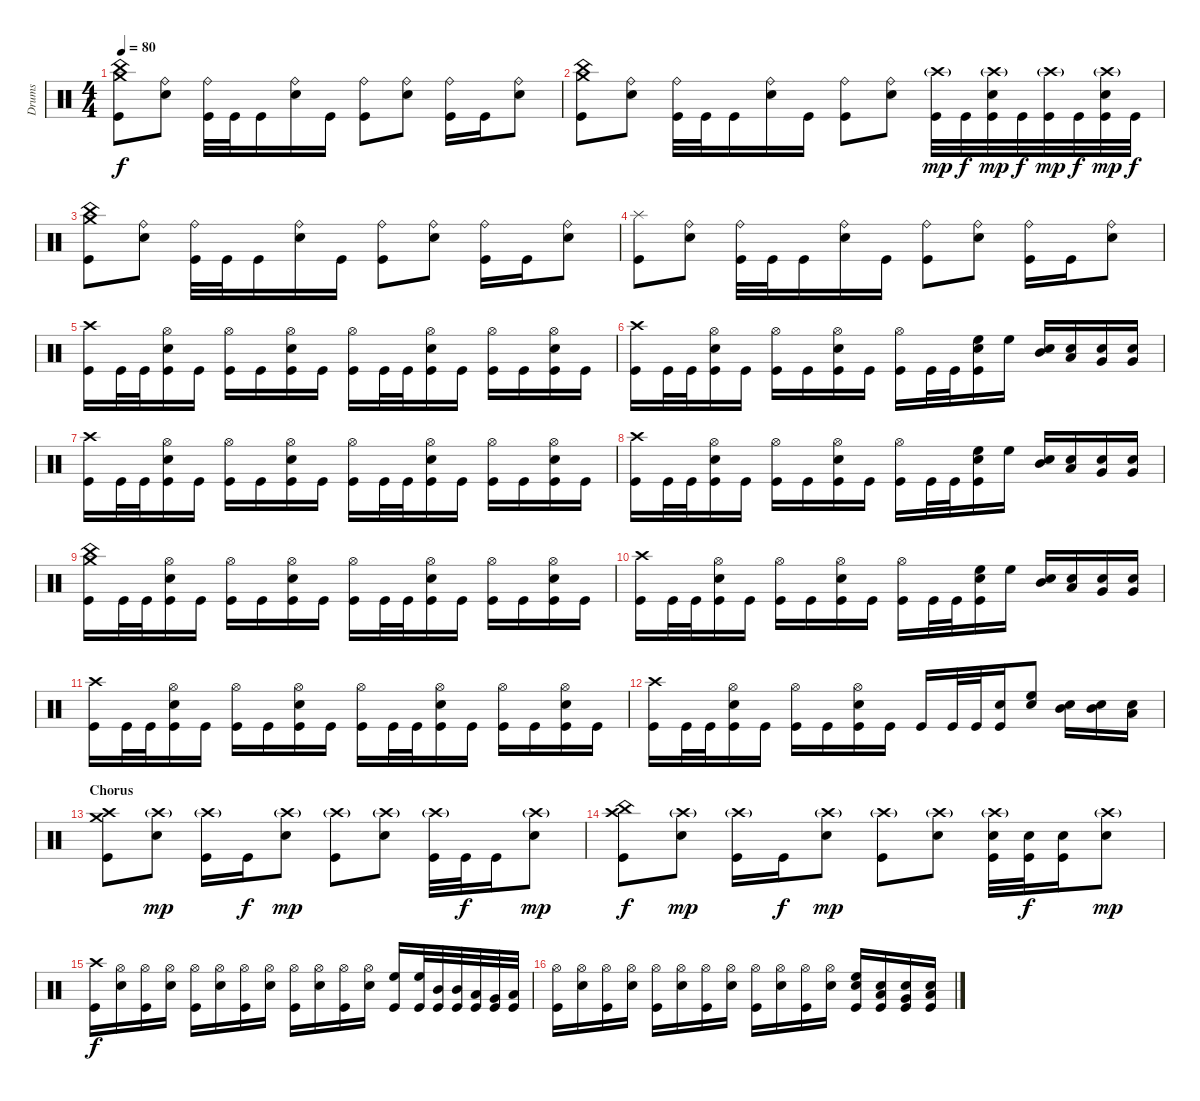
\track ("Drums" "Drums") {instrument percussion}
\staff {score}
\articulation defaults
\ts (4 4)
\tempo 80
\clef neutral
\ks c
("China (hit)" "Crash medium (hit)" "Kick (hit)").8{dy f} ("Ride (bell)" "Electric Snare (hit)").8 ("Ride (bell)" "Kick (hit)").32 "Kick (hit)".32 "Kick (hit)".16 ("Ride (bell)" "Electric Snare (hit)").16 "Kick (hit)".16 ("Ride (bell)" "Kick (hit)").8 ("Ride (bell)" "Electric Snare (hit)").8 ("Ride (bell)" "Kick (hit)").16 "Kick (hit)".16 ("Ride (bell)" "Electric Snare (hit)").8 |
("China (hit)" "Crash medium (hit)" "Kick (hit)").8 ("Ride (bell)" "Electric Snare (hit)").8 ("Ride (bell)" "Kick (hit)").32 "Kick (hit)".32 "Kick (hit)".16 ("Ride (bell)" "Electric Snare (hit)").16 "Kick (hit)".16 ("Ride (bell)" "Kick (hit)").8 ("Ride (bell)" "Electric Snare (hit)").8 ("Crash high (hit)"{g} "Kick (hit)").32{dy mp} "Kick (hit)".32{dy f} ("Crash high (hit)"{g} "Electric Snare (hit)" "Kick (hit)").32{dy mp} "Kick (hit)".32{dy f} ("Crash high (hit)"{g} "Kick (hit)").32{dy mp} "Kick (hit)".32{dy f} ("Crash high (hit)"{g} "Electric Snare (hit)" "Kick (hit)").32{dy mp} "Kick (hit)".32{dy f} |
("China (hit)" "Crash medium (hit)" "Kick (hit)").8 ("Ride (bell)" "Electric Snare (hit)").8 ("Ride (bell)" "Kick (hit)").32 "Kick (hit)".32 "Kick (hit)".16 ("Ride (bell)" "Electric Snare (hit)").16 "Kick (hit)".16 ("Ride (bell)" "Kick (hit)").8 ("Ride (bell)" "Electric Snare (hit)").8 ("Ride (bell)" "Kick (hit)").16 "Kick (hit)".16 ("Ride (bell)" "Electric Snare (hit)").8 |
("Splash (hit)" "Kick (hit)").8 ("Ride (bell)" "Electric Snare (hit)").8 ("Ride (bell)" "Kick (hit)").32 "Kick (hit)".32 "Kick (hit)".16 ("Ride (bell)" "Electric Snare (hit)").16 "Kick (hit)".16 ("Ride (bell)" "Kick (hit)").8 ("Ride (bell)" "Electric Snare (hit)").8 ("Ride (bell)" "Kick (hit)").16 "Kick (hit)".16 ("Ride (bell)" "Electric Snare (hit)").8 |
("Crash high (hit)" "Kick (hit)").16 "Kick (hit)".32 "Kick (hit)".32 ("Hi-Hat (open)" "Electric Snare (hit)" "Kick (hit)").16 "Kick (hit)".16 ("Hi-Hat (open)" "Kick (hit)").16 "Kick (hit)".16 ("Hi-Hat (open)" "Electric Snare (hit)" "Kick (hit)").16 "Kick (hit)".16 ("Hi-Hat (open)" "Kick (hit)").16 "Kick (hit)".32 "Kick (hit)".32 ("Hi-Hat (open)" "Electric Snare (hit)" "Kick (hit)").16 "Kick (hit)".16 ("Hi-Hat (open)" "Kick (hit)").16 "Kick (hit)".16 ("Hi-Hat (open)" "Electric Snare (hit)" "Kick (hit)").16 "Kick (hit)".16 |
("Crash high (hit)" "Kick (hit)").16 "Kick (hit)".32 "Kick (hit)".32 ("Hi-Hat (open)" "Electric Snare (hit)" "Kick (hit)").16 "Kick (hit)".16 ("Hi-Hat (open)" "Kick (hit)").16 "Kick (hit)".16 ("Hi-Hat (open)" "Electric Snare (hit)" "Kick (hit)").16 "Kick (hit)".16 ("Hi-Hat (open)" "Kick (hit)").16 "Kick (hit)".32 "Kick (hit)".32 ("High Floor Tom (hit)" "Electric Snare (hit)" "Kick (hit)").16 "High Floor Tom (hit)".16 ("Mid Tom (hit)" "Electric Snare (hit)").16 ("Low Tom (hit)" "Electric Snare (hit)").16 ("Very Low Tom (hit)" "Electric Snare (hit)").16 ("Very Low Tom (hit)" "Electric Snare (hit)").16 |
("Crash high (hit)" "Kick (hit)").16 "Kick (hit)".32 "Kick (hit)".32 ("Hi-Hat (open)" "Electric Snare (hit)" "Kick (hit)").16 "Kick (hit)".16 ("Hi-Hat (open)" "Kick (hit)").16 "Kick (hit)".16 ("Hi-Hat (open)" "Electric Snare (hit)" "Kick (hit)").16 "Kick (hit)".16 ("Hi-Hat (open)" "Kick (hit)").16 "Kick (hit)".32 "Kick (hit)".32 ("Hi-Hat (open)" "Electric Snare (hit)" "Kick (hit)").16 "Kick (hit)".16 ("Hi-Hat (open)" "Kick (hit)").16 "Kick (hit)".16 ("Hi-Hat (open)" "Electric Snare (hit)" "Kick (hit)").16 "Kick (hit)".16 |
("Crash high (hit)" "Kick (hit)").16 "Kick (hit)".32 "Kick (hit)".32 ("Hi-Hat (open)" "Electric Snare (hit)" "Kick (hit)").16 "Kick (hit)".16 ("Hi-Hat (open)" "Kick (hit)").16 "Kick (hit)".16 ("Hi-Hat (open)" "Electric Snare (hit)" "Kick (hit)").16 "Kick (hit)".16 ("Hi-Hat (open)" "Kick (hit)").16 "Kick (hit)".32 "Kick (hit)".32 ("High Floor Tom (hit)" "Electric Snare (hit)" "Kick (hit)").16 "High Floor Tom (hit)".16 ("Mid Tom (hit)" "Electric Snare (hit)").16 ("Low Tom (hit)" "Electric Snare (hit)").16 ("Very Low Tom (hit)" "Electric Snare (hit)").16 ("Very Low Tom (hit)" "Electric Snare (hit)").16 |
("Crash medium (hit)" "China (hit)" "Kick (hit)").16 "Kick (hit)".32 "Kick (hit)".32 ("Hi-Hat (open)" "Electric Snare (hit)" "Kick (hit)").16 "Kick (hit)".16 ("Hi-Hat (open)" "Kick (hit)").16 "Kick (hit)".16 ("Hi-Hat (open)" "Electric Snare (hit)" "Kick (hit)").16 "Kick (hit)".16 ("Hi-Hat (open)" "Kick (hit)").16 "Kick (hit)".32 "Kick (hit)".32 ("Hi-Hat (open)" "Electric Snare (hit)" "Kick (hit)").16 "Kick (hit)".16 ("Hi-Hat (open)" "Kick (hit)").16 "Kick (hit)".16 ("Hi-Hat (open)" "Electric Snare (hit)" "Kick (hit)").16 "Kick (hit)".16 |
("Crash high (hit)" "Kick (hit)").16 "Kick (hit)".32 "Kick (hit)".32 ("Hi-Hat (open)" "Electric Snare (hit)" "Kick (hit)").16 "Kick (hit)".16 ("Hi-Hat (open)" "Kick (hit)").16 "Kick (hit)".16 ("Hi-Hat (open)" "Electric Snare (hit)" "Kick (hit)").16 "Kick (hit)".16 ("Hi-Hat (open)" "Kick (hit)").16 "Kick (hit)".32 "Kick (hit)".32 ("High Floor Tom (hit)" "Electric Snare (hit)" "Kick (hit)").16 "High Floor Tom (hit)".16 ("Mid Tom (hit)" "Electric Snare (hit)").16 ("Low Tom (hit)" "Electric Snare (hit)").16 ("Very Low Tom (hit)" "Electric Snare (hit)").16 ("Very Low Tom (hit)" "Electric Snare (hit)").16 |
("Crash high (hit)" "Kick (hit)").16 "Kick (hit)".32 "Kick (hit)".32 ("Hi-Hat (open)" "Electric Snare (hit)" "Kick (hit)").16 "Kick (hit)".16 ("Hi-Hat (open)" "Kick (hit)").16 "Kick (hit)".16 ("Hi-Hat (open)" "Electric Snare (hit)" "Kick (hit)").16 "Kick (hit)".16 ("Hi-Hat (open)" "Kick (hit)").16 "Kick (hit)".32 "Kick (hit)".32 ("Hi-Hat (open)" "Electric Snare (hit)" "Kick (hit)").16 "Kick (hit)".16 ("Hi-Hat (open)" "Kick (hit)").16 "Kick (hit)".16 ("Hi-Hat (open)" "Electric Snare (hit)" "Kick (hit)").16 "Kick (hit)".16 |
("Crash high (hit)" "Kick (hit)").16 "Kick (hit)".32 "Kick (hit)".32 ("Hi-Hat (open)" "Electric Snare (hit)" "Kick (hit)").16 "Kick (hit)".16 ("Hi-Hat (open)" "Kick (hit)").16 "Kick (hit)".16 ("Hi-Hat (open)" "Electric Snare (hit)" "Kick (hit)").16 "Kick (hit)".16 "Kick (hit)".16 "Kick (hit)".32 "Kick (hit)".32 ("Electric Snare (hit)" "Kick (hit)").16 ("High Floor Tom (hit)" "Electric Snare (hit)").8 ("Mid Tom (hit)" "Electric Snare (hit)").16 ("Mid Tom (hit)" "Electric Snare (hit)").16 ("Low Tom (hit)" "Electric Snare (hit)").16 |
\section ("" "Chorus")
("Crash high (hit)" "Crash medium (hit)" "Kick (hit)").8 ("Crash high (hit)"{g} "Electric Snare (hit)").8{dy mp} ("Crash high (hit)"{g} "Kick (hit)").16 "Kick (hit)".16{dy f} ("Crash high (hit)"{g} "Electric Snare (hit)").8{dy mp} ("Crash high (hit)"{g} "Kick (hit)").8 ("Crash high (hit)"{g} "Electric Snare (hit)").8 ("Crash high (hit)"{g} "Kick (hit)").32 "Kick (hit)".32{dy f} "Kick (hit)".16 ("Crash high (hit)"{g} "Electric Snare (hit)").8{dy mp} |
("Crash high (hit)" "China (hit)" "Kick (hit)").8{dy f} ("Crash high (hit)"{g} "Electric Snare (hit)").8{dy mp} ("Crash high (hit)"{g} "Kick (hit)").16 "Kick (hit)".16{dy f} ("Crash high (hit)"{g} "Electric Snare (hit)").8{dy mp} ("Crash high (hit)"{g} "Kick (hit)").8 ("Crash high (hit)"{g} "Electric Snare (hit)").8 ("Crash high (hit)"{g} "Electric Snare (hit)" "Kick (hit)").32 ("Electric Snare (hit)" "Kick (hit)").32{dy f} ("Electric Snare (hit)" "Kick (hit)").16 ("Crash high (hit)"{g} "Electric Snare (hit)").8{dy mp} |
("Crash high (hit)" "Kick (hit)").16{dy f} ("Hi-Hat (open)" "Electric Snare (hit)").16 ("Hi-Hat (open)" "Kick (hit)").16 ("Hi-Hat (open)" "Electric Snare (hit)").16 ("Hi-Hat (open)" "Kick (hit)").16 ("Hi-Hat (open)" "Electric Snare (hit)").16 ("Hi-Hat (open)" "Kick (hit)").16 ("Hi-Hat (open)" "Electric Snare (hit)").16 ("Hi-Hat (open)" "Kick (hit)").16 ("Hi-Hat (open)" "Electric Snare (hit)").16 ("Hi-Hat (open)" "Kick (hit)").16 ("Hi-Hat (open)" "Electric Snare (hit)").16 ("High Floor Tom (hit)" "Kick (hit)").16 ("High Floor Tom (hit)" "Kick (hit)").32 ("Mid Tom (hit)" "Kick (hit)").32 ("Mid Tom (hit)" "Kick (hit)").32 ("Low Tom (hit)" "Kick (hit)").32 ("Very Low Tom (hit)" "Kick (hit)").32 ("Low Floor Tom (hit)" "Kick (hit)").32 |
("Hi-Hat (open)" "Kick (hit)").16 ("Hi-Hat (open)" "Electric Snare (hit)").16 ("Hi-Hat (open)" "Kick (hit)").16 ("Hi-Hat (open)" "Electric Snare (hit)").16 ("Hi-Hat (open)" "Kick (hit)").16 ("Hi-Hat (open)" "Electric Snare (hit)").16 ("Hi-Hat (open)" "Kick (hit)").16 ("Hi-Hat (open)" "Electric Snare (hit)").16 ("Hi-Hat (open)" "Kick (hit)").16 ("Hi-Hat (open)" "Electric Snare (hit)").16 ("Hi-Hat (open)" "Kick (hit)").16 ("Hi-Hat (open)" "Electric Snare (hit)").16 ("High Floor Tom (hit)" "Electric Snare (hit)" "Kick (hit)").16 ("Low Tom (hit)" "Electric Snare (hit)" "Kick (hit)").16 ("Very Low Tom (hit)" "Electric Snare (hit)" "Kick (hit)").16 ("Low Floor Tom (hit)" "Electric Snare (hit)" "Kick (hit)").16
